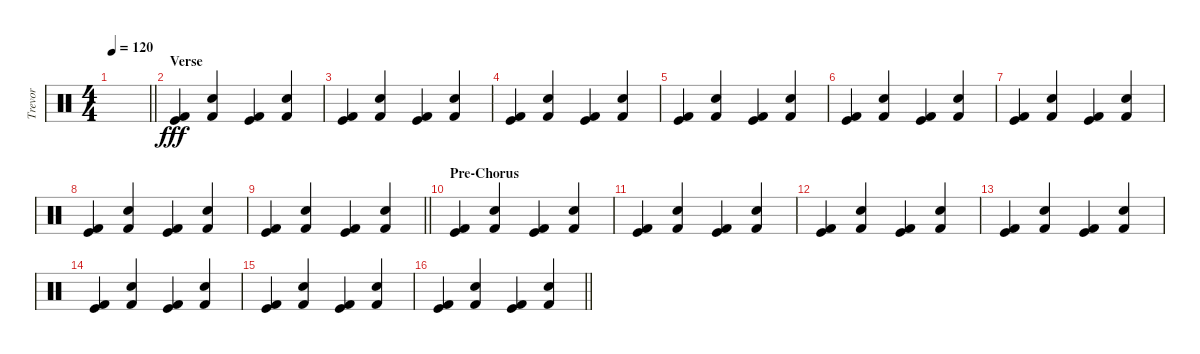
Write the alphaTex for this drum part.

\track ("Trevor" "Trevor") {instrument percussion}
\staff {score}
\articulation defaults
\ts (4 4)
\section ("" "")
\tempo 120
\clef neutral
\barLineRight lightlight
\ks c
|
\section ("" "Verse")
("Kick (hit)" "Kick (hit) 2").4{dy fff} ("Kick (hit) 2" "Snare (hit) 2").4 ("Kick (hit)" "Kick (hit) 2").4 ("Kick (hit) 2" "Snare (hit) 2").4 |
("Kick (hit)" "Kick (hit) 2").4 ("Kick (hit) 2" "Snare (hit) 2").4 ("Kick (hit)" "Kick (hit) 2").4 ("Kick (hit) 2" "Snare (hit) 2").4 |
("Kick (hit)" "Kick (hit) 2").4 ("Kick (hit) 2" "Snare (hit) 2").4 ("Kick (hit)" "Kick (hit) 2").4 ("Kick (hit) 2" "Snare (hit) 2").4 |
("Kick (hit)" "Kick (hit) 2").4 ("Kick (hit) 2" "Snare (hit) 2").4 ("Kick (hit)" "Kick (hit) 2").4 ("Kick (hit) 2" "Snare (hit) 2").4 |
("Kick (hit)" "Kick (hit) 2").4 ("Kick (hit) 2" "Snare (hit) 2").4 ("Kick (hit)" "Kick (hit) 2").4 ("Kick (hit) 2" "Snare (hit) 2").4 |
("Kick (hit)" "Kick (hit) 2").4 ("Kick (hit) 2" "Snare (hit) 2").4 ("Kick (hit)" "Kick (hit) 2").4 ("Kick (hit) 2" "Snare (hit) 2").4 |
("Kick (hit)" "Kick (hit) 2").4 ("Kick (hit) 2" "Snare (hit) 2").4 ("Kick (hit)" "Kick (hit) 2").4 ("Kick (hit) 2" "Snare (hit) 2").4 |
\barLineRight lightlight
("Kick (hit)" "Kick (hit) 2").4 ("Kick (hit) 2" "Snare (hit) 2").4 ("Kick (hit)" "Kick (hit) 2").4 ("Kick (hit) 2" "Snare (hit) 2").4 |
\section ("" "Pre-Chorus")
("Kick (hit)" "Kick (hit) 2").4 ("Kick (hit) 2" "Snare (hit) 2").4 ("Kick (hit)" "Kick (hit) 2").4 ("Kick (hit) 2" "Snare (hit) 2").4 |
("Kick (hit)" "Kick (hit) 2").4 ("Kick (hit) 2" "Snare (hit) 2").4 ("Kick (hit)" "Kick (hit) 2").4 ("Kick (hit) 2" "Snare (hit) 2").4 |
("Kick (hit)" "Kick (hit) 2").4 ("Kick (hit) 2" "Snare (hit) 2").4 ("Kick (hit)" "Kick (hit) 2").4 ("Kick (hit) 2" "Snare (hit) 2").4 |
("Kick (hit)" "Kick (hit) 2").4 ("Kick (hit) 2" "Snare (hit) 2").4 ("Kick (hit)" "Kick (hit) 2").4 ("Kick (hit) 2" "Snare (hit) 2").4 |
("Kick (hit)" "Kick (hit) 2").4 ("Kick (hit) 2" "Snare (hit) 2").4 ("Kick (hit)" "Kick (hit) 2").4 ("Kick (hit) 2" "Snare (hit) 2").4 |
("Kick (hit)" "Kick (hit) 2").4 ("Kick (hit) 2" "Snare (hit) 2").4 ("Kick (hit)" "Kick (hit) 2").4 ("Kick (hit) 2" "Snare (hit) 2").4 |
\barLineRight lightlight
("Kick (hit)" "Kick (hit) 2").4 ("Kick (hit) 2" "Snare (hit) 2").4 ("Kick (hit)" "Kick (hit) 2").4 ("Kick (hit) 2" "Snare (hit) 2").4
